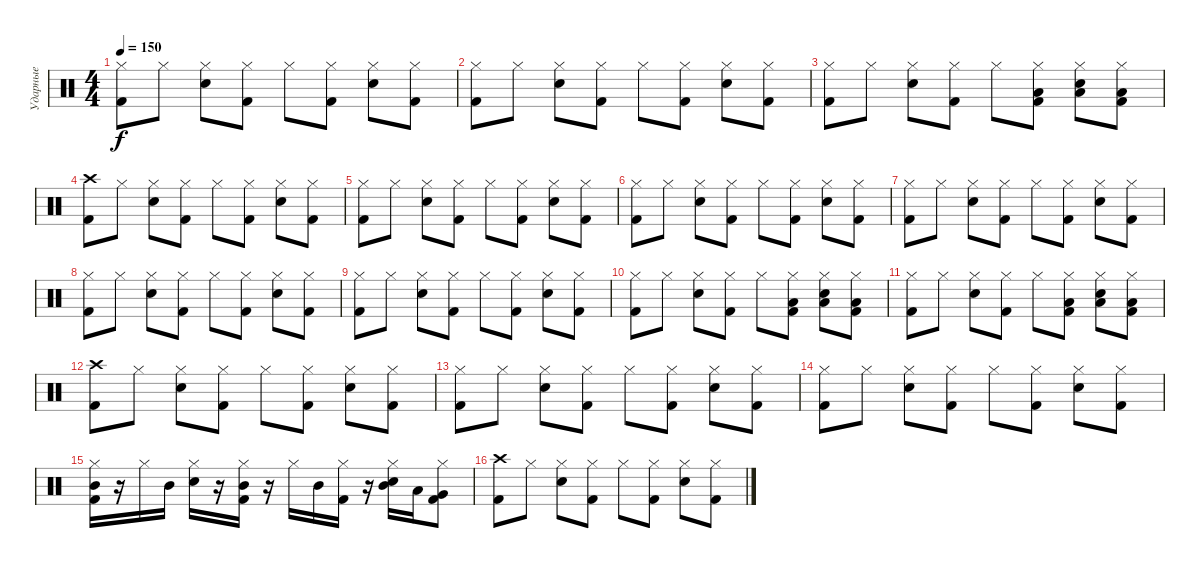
\track ("Ударные" "Ударные") {instrument percussion}
\staff {score}
\articulation defaults
\ts (4 4)
\tempo 150
\clef neutral
\ks c
("Hi-Hat (closed)" "Kick (hit) 2").8{dy f} "Hi-Hat (closed)".8 ("Hi-Hat (closed)" "Snare (hit) 2").8 ("Hi-Hat (closed)" "Kick (hit) 2").8 "Hi-Hat (closed)".8 ("Hi-Hat (closed)" "Kick (hit) 2").8 ("Hi-Hat (closed)" "Snare (hit) 2").8 ("Hi-Hat (closed)" "Kick (hit) 2").8 |
("Hi-Hat (closed)" "Kick (hit) 2").8 "Hi-Hat (closed)".8 ("Hi-Hat (closed)" "Snare (hit) 2").8 ("Hi-Hat (closed)" "Kick (hit) 2").8 "Hi-Hat (closed)".8 ("Hi-Hat (closed)" "Kick (hit) 2").8 ("Hi-Hat (closed)" "Snare (hit) 2").8 ("Hi-Hat (closed)" "Kick (hit) 2").8 |
("Hi-Hat (closed)" "Kick (hit) 2").8 "Hi-Hat (closed)".8 ("Hi-Hat (closed)" "Snare (hit) 2").8 ("Hi-Hat (closed)" "Kick (hit) 2").8 "Hi-Hat (closed)".8 ("Hi-Hat (closed)" "Low Tom (hit)" "Kick (hit) 2").8 ("Hi-Hat (closed)" "Low Tom (hit)" "Snare (hit) 2").8 ("Hi-Hat (closed)" "Low Tom (hit)" "Kick (hit) 2").8 |
("Crash high (hit)" "Kick (hit) 2").8 "Hi-Hat (closed)".8 ("Snare (hit) 2" "Hi-Hat (closed)").8 ("Hi-Hat (closed)" "Kick (hit) 2").8 "Hi-Hat (closed)".8 ("Hi-Hat (closed)" "Kick (hit) 2").8 ("Snare (hit) 2" "Hi-Hat (closed)").8 ("Hi-Hat (closed)" "Kick (hit) 2").8 |
("Hi-Hat (closed)" "Kick (hit) 2").8 "Hi-Hat (closed)".8 ("Snare (hit) 2" "Hi-Hat (closed)").8 ("Hi-Hat (closed)" "Kick (hit) 2").8 "Hi-Hat (closed)".8 ("Hi-Hat (closed)" "Kick (hit) 2").8 ("Snare (hit) 2" "Hi-Hat (closed)").8 ("Hi-Hat (closed)" "Kick (hit) 2").8 |
("Hi-Hat (closed)" "Kick (hit) 2").8 "Hi-Hat (closed)".8 ("Snare (hit) 2" "Hi-Hat (closed)").8 ("Hi-Hat (closed)" "Kick (hit) 2").8 "Hi-Hat (closed)".8 ("Hi-Hat (closed)" "Kick (hit) 2").8 ("Snare (hit) 2" "Hi-Hat (closed)").8 ("Hi-Hat (closed)" "Kick (hit) 2").8 |
("Hi-Hat (closed)" "Kick (hit) 2").8 "Hi-Hat (closed)".8 ("Snare (hit) 2" "Hi-Hat (closed)").8 ("Hi-Hat (closed)" "Kick (hit) 2").8 "Hi-Hat (closed)".8 ("Hi-Hat (closed)" "Kick (hit) 2").8 ("Snare (hit) 2" "Hi-Hat (closed)").8 ("Hi-Hat (closed)" "Kick (hit) 2").8 |
("Hi-Hat (closed)" "Kick (hit) 2").8 "Hi-Hat (closed)".8 ("Snare (hit) 2" "Hi-Hat (closed)").8 ("Hi-Hat (closed)" "Kick (hit) 2").8 "Hi-Hat (closed)".8 ("Hi-Hat (closed)" "Kick (hit) 2").8 ("Snare (hit) 2" "Hi-Hat (closed)").8 ("Hi-Hat (closed)" "Kick (hit) 2").8 |
("Hi-Hat (closed)" "Kick (hit) 2").8 "Hi-Hat (closed)".8 ("Snare (hit) 2" "Hi-Hat (closed)").8 ("Hi-Hat (closed)" "Kick (hit) 2").8 "Hi-Hat (closed)".8 ("Hi-Hat (closed)" "Kick (hit) 2").8 ("Snare (hit) 2" "Hi-Hat (closed)").8 ("Hi-Hat (closed)" "Kick (hit) 2").8 |
("Hi-Hat (closed)" "Kick (hit) 2").8 "Hi-Hat (closed)".8 ("Snare (hit) 2" "Hi-Hat (closed)").8 ("Hi-Hat (closed)" "Kick (hit) 2").8 "Hi-Hat (closed)".8 ("Low Tom (hit)" "Hi-Hat (closed)" "Kick (hit) 2").8 ("Low Tom (hit)" "Snare (hit) 2" "Hi-Hat (closed)").8 ("Low Tom (hit)" "Hi-Hat (closed)" "Kick (hit) 2").8 |
("Hi-Hat (closed)" "Kick (hit) 2").8 "Hi-Hat (closed)".8 ("Snare (hit) 2" "Hi-Hat (closed)").8 ("Hi-Hat (closed)" "Kick (hit) 2").8 "Hi-Hat (closed)".8 ("Low Tom (hit)" "Hi-Hat (closed)" "Kick (hit) 2").8 ("Low Tom (hit)" "Snare (hit) 2" "Hi-Hat (closed)").8 ("Low Tom (hit)" "Hi-Hat (closed)" "Kick (hit) 2").8 |
("Crash high (hit)" "Kick (hit) 2").8 "Hi-Hat (closed)".8 ("Hi-Hat (closed)" "Snare (hit) 2").8 ("Hi-Hat (closed)" "Kick (hit) 2").8 "Hi-Hat (closed)".8 ("Hi-Hat (closed)" "Kick (hit) 2").8 ("Hi-Hat (closed)" "Snare (hit) 2").8 ("Hi-Hat (closed)" "Kick (hit) 2").8 |
("Hi-Hat (closed)" "Kick (hit) 2").8 "Hi-Hat (closed)".8 ("Hi-Hat (closed)" "Snare (hit) 2").8 ("Hi-Hat (closed)" "Kick (hit) 2").8 "Hi-Hat (closed)".8 ("Hi-Hat (closed)" "Kick (hit) 2").8 ("Hi-Hat (closed)" "Snare (hit) 2").8 ("Hi-Hat (closed)" "Kick (hit) 2").8 |
("Hi-Hat (closed)" "Kick (hit) 2").8 "Hi-Hat (closed)".8 ("Hi-Hat (closed)" "Snare (hit) 2").8 ("Hi-Hat (closed)" "Kick (hit) 2").8 "Hi-Hat (closed)".8 ("Hi-Hat (closed)" "Kick (hit) 2").8 ("Hi-Hat (closed)" "Snare (hit) 2").8 ("Hi-Hat (closed)" "Kick (hit) 2").8 |
("Mid Tom (hit)" "Hi-Hat (closed)" "Kick (hit) 2").16 r.16 "Hi-Hat (closed)".16 "Mid Tom (hit)".16 ("Hi-Hat (closed)" "Snare (hit) 2").16 r.16 ("Mid Tom (hit)" "Hi-Hat (closed)" "Kick (hit) 2").16 r.16 "Hi-Hat (closed)".16 "Mid Tom (hit)".16 ("Hi-Hat (closed)" "Kick (hit) 2").16 r.16 ("Mid Tom (hit)" "Hi-Hat (closed)" "Snare (hit) 2").16 "Low Tom (hit)".16 ("Very Low Tom (hit)" "Hi-Hat (closed)" "Kick (hit) 2").8 |
("Crash high (hit)" "Kick (hit) 2").8 "Hi-Hat (closed)".8 ("Hi-Hat (closed)" "Snare (hit) 2").8 ("Hi-Hat (closed)" "Kick (hit) 2").8 "Hi-Hat (closed)".8 ("Hi-Hat (closed)" "Kick (hit) 2").8 ("Hi-Hat (closed)" "Snare (hit) 2").8 ("Hi-Hat (closed)" "Kick (hit) 2").8
